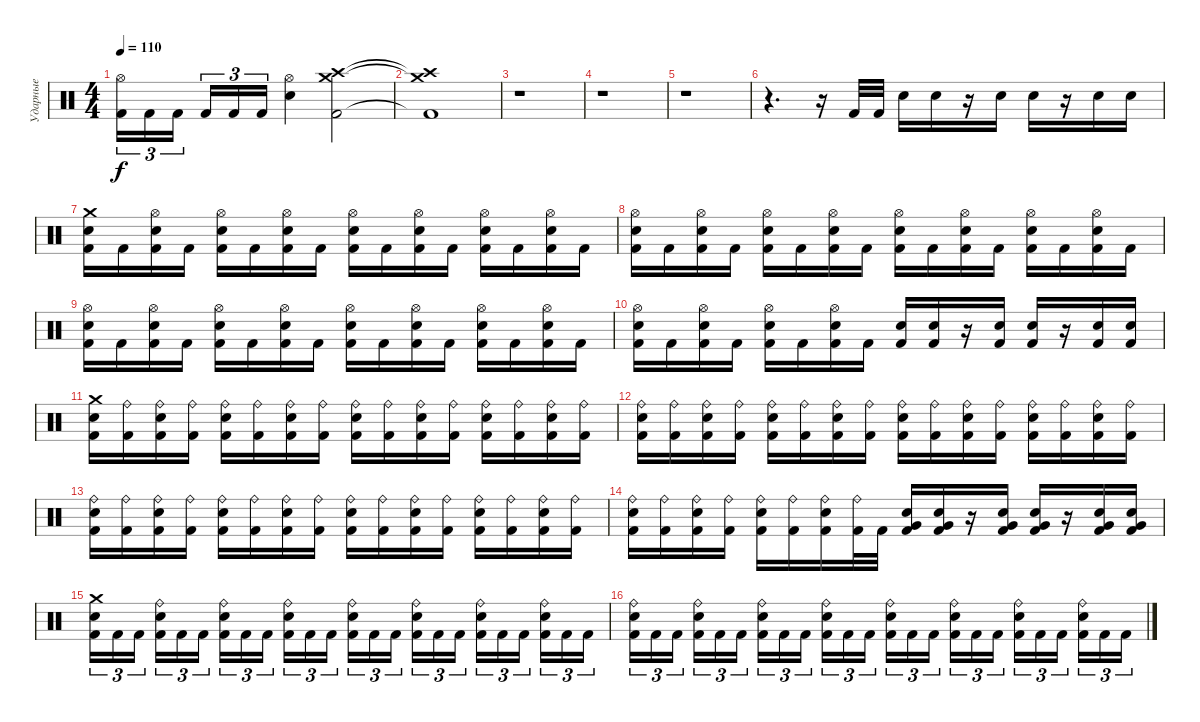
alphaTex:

\track ("Ударные" "Ударные") {instrument percussion}
\staff {score}
\articulation defaults
\ts (4 4)
\tempo 110
\clef neutral
\ks c
("Hi-Hat (open)" "Kick (hit) 2").16{tu (3 2) dy f} "Kick (hit) 2".16{tu (3 2)} "Kick (hit) 2".16{tu (3 2) beam splitsecondary} "Kick (hit) 2".16{tu (3 2)} "Kick (hit) 2".16{tu (3 2)} "Kick (hit) 2".16{tu (3 2)} ("Hi-Hat (open)" "Electric Snare (hit)").4 ("Crash medium (hit)" "Crash high (hit)" "Kick (hit) 2").2 |
("Crash medium (hit)"{t} "Crash high (hit)"{t} "Kick (hit) 2"{t}).1 |
r.1 |
r.1 |
r.1 |
r.4{d} r.16 "Kick (hit) 2".32 "Kick (hit) 2".32 "Electric Snare (hit)".16 "Electric Snare (hit)".16 r.16 "Electric Snare (hit)".16 "Electric Snare (hit)".16 r.16 "Electric Snare (hit)".16 "Electric Snare (hit)".16 |
("Crash medium (hit)" "Electric Snare (hit)" "Kick (hit) 2").16 "Kick (hit) 2".16 ("Hi-Hat (open)" "Electric Snare (hit)" "Kick (hit) 2").16 "Kick (hit) 2".16 ("Hi-Hat (open)" "Electric Snare (hit)" "Kick (hit) 2").16 "Kick (hit) 2".16 ("Hi-Hat (open)" "Electric Snare (hit)" "Kick (hit) 2").16 "Kick (hit) 2".16 ("Hi-Hat (open)" "Electric Snare (hit)" "Kick (hit) 2").16 "Kick (hit) 2".16 ("Hi-Hat (open)" "Electric Snare (hit)" "Kick (hit) 2").16 "Kick (hit) 2".16 ("Hi-Hat (open)" "Electric Snare (hit)" "Kick (hit) 2").16 "Kick (hit) 2".16 ("Hi-Hat (open)" "Electric Snare (hit)" "Kick (hit) 2").16 "Kick (hit) 2".16 |
("Hi-Hat (open)" "Electric Snare (hit)" "Kick (hit) 2").16 "Kick (hit) 2".16 ("Hi-Hat (open)" "Electric Snare (hit)" "Kick (hit) 2").16 "Kick (hit) 2".16 ("Hi-Hat (open)" "Electric Snare (hit)" "Kick (hit) 2").16 "Kick (hit) 2".16 ("Hi-Hat (open)" "Electric Snare (hit)" "Kick (hit) 2").16 "Kick (hit) 2".16 ("Hi-Hat (open)" "Electric Snare (hit)" "Kick (hit) 2").16 "Kick (hit) 2".16 ("Hi-Hat (open)" "Electric Snare (hit)" "Kick (hit) 2").16 "Kick (hit) 2".16 ("Hi-Hat (open)" "Electric Snare (hit)" "Kick (hit) 2").16 "Kick (hit) 2".16 ("Hi-Hat (open)" "Electric Snare (hit)" "Kick (hit) 2").16 "Kick (hit) 2".16 |
("Hi-Hat (open)" "Electric Snare (hit)" "Kick (hit) 2").16 "Kick (hit) 2".16 ("Hi-Hat (open)" "Electric Snare (hit)" "Kick (hit) 2").16 "Kick (hit) 2".16 ("Hi-Hat (open)" "Electric Snare (hit)" "Kick (hit) 2").16 "Kick (hit) 2".16 ("Hi-Hat (open)" "Electric Snare (hit)" "Kick (hit) 2").16 "Kick (hit) 2".16 ("Hi-Hat (open)" "Electric Snare (hit)" "Kick (hit) 2").16 "Kick (hit) 2".16 ("Hi-Hat (open)" "Electric Snare (hit)" "Kick (hit) 2").16 "Kick (hit) 2".16 ("Hi-Hat (open)" "Electric Snare (hit)" "Kick (hit) 2").16 "Kick (hit) 2".16 ("Hi-Hat (open)" "Electric Snare (hit)" "Kick (hit) 2").16 "Kick (hit) 2".16 |
("Hi-Hat (open)" "Electric Snare (hit)" "Kick (hit) 2").16 "Kick (hit) 2".16 ("Hi-Hat (open)" "Electric Snare (hit)" "Kick (hit) 2").16 "Kick (hit) 2".16 ("Hi-Hat (open)" "Electric Snare (hit)" "Kick (hit) 2").16 "Kick (hit) 2".16 ("Hi-Hat (open)" "Electric Snare (hit)" "Kick (hit) 2").16 "Kick (hit) 2".16 ("Electric Snare (hit)" "Kick (hit) 2").16 ("Electric Snare (hit)" "Kick (hit) 2").16 r.16 ("Electric Snare (hit)" "Kick (hit) 2").16 ("Electric Snare (hit)" "Kick (hit) 2").16 r.16 ("Electric Snare (hit)" "Kick (hit) 2").16 ("Electric Snare (hit)" "Kick (hit) 2").16 |
("Crash medium (hit)" "Electric Snare (hit)" "Kick (hit) 2").16 ("Ride (bell)" "Kick (hit) 2").16 ("Ride (bell)" "Electric Snare (hit)" "Kick (hit) 2").16 ("Ride (bell)" "Kick (hit) 2").16 ("Ride (bell)" "Electric Snare (hit)" "Kick (hit) 2").16 ("Ride (bell)" "Kick (hit) 2").16 ("Ride (bell)" "Electric Snare (hit)" "Kick (hit) 2").16 ("Ride (bell)" "Kick (hit) 2").16 ("Ride (bell)" "Electric Snare (hit)" "Kick (hit) 2").16 ("Ride (bell)" "Kick (hit) 2").16 ("Ride (bell)" "Electric Snare (hit)" "Kick (hit) 2").16 ("Ride (bell)" "Kick (hit) 2").16 ("Ride (bell)" "Electric Snare (hit)" "Kick (hit) 2").16 ("Ride (bell)" "Kick (hit) 2").16 ("Ride (bell)" "Electric Snare (hit)" "Kick (hit) 2").16 ("Ride (bell)" "Kick (hit) 2").16 |
("Ride (bell)" "Electric Snare (hit)" "Kick (hit) 2").16 ("Ride (bell)" "Kick (hit) 2").16 ("Ride (bell)" "Electric Snare (hit)" "Kick (hit) 2").16 ("Ride (bell)" "Kick (hit) 2").16 ("Ride (bell)" "Electric Snare (hit)" "Kick (hit) 2").16 ("Ride (bell)" "Kick (hit) 2").16 ("Ride (bell)" "Electric Snare (hit)" "Kick (hit) 2").16 ("Ride (bell)" "Kick (hit) 2").16 ("Ride (bell)" "Electric Snare (hit)" "Kick (hit) 2").16 ("Ride (bell)" "Kick (hit) 2").16 ("Ride (bell)" "Electric Snare (hit)" "Kick (hit) 2").16 ("Ride (bell)" "Kick (hit) 2").16 ("Ride (bell)" "Electric Snare (hit)" "Kick (hit) 2").16 ("Ride (bell)" "Kick (hit) 2").16 ("Ride (bell)" "Electric Snare (hit)" "Kick (hit) 2").16 ("Ride (bell)" "Kick (hit) 2").16 |
("Ride (bell)" "Electric Snare (hit)" "Kick (hit) 2").16 ("Ride (bell)" "Kick (hit) 2").16 ("Ride (bell)" "Electric Snare (hit)" "Kick (hit) 2").16 ("Ride (bell)" "Kick (hit) 2").16 ("Ride (bell)" "Electric Snare (hit)" "Kick (hit) 2").16 ("Ride (bell)" "Kick (hit) 2").16 ("Ride (bell)" "Electric Snare (hit)" "Kick (hit) 2").16 ("Ride (bell)" "Kick (hit) 2").16 ("Ride (bell)" "Electric Snare (hit)" "Kick (hit) 2").16 ("Ride (bell)" "Kick (hit) 2").16 ("Ride (bell)" "Electric Snare (hit)" "Kick (hit) 2").16 ("Ride (bell)" "Kick (hit) 2").16 ("Ride (bell)" "Electric Snare (hit)" "Kick (hit) 2").16 ("Ride (bell)" "Kick (hit) 2").16 ("Ride (bell)" "Electric Snare (hit)" "Kick (hit) 2").16 ("Ride (bell)" "Kick (hit) 2").16 |
("Ride (bell)" "Electric Snare (hit)" "Kick (hit) 2").16 ("Ride (bell)" "Kick (hit) 2").16 ("Ride (bell)" "Electric Snare (hit)" "Kick (hit) 2").16 ("Ride (bell)" "Kick (hit) 2").16 ("Ride (bell)" "Electric Snare (hit)" "Kick (hit) 2").16 ("Ride (bell)" "Kick (hit) 2").16 ("Ride (bell)" "Electric Snare (hit)" "Kick (hit) 2").16 ("Ride (bell)" "Kick (hit) 2").32 "Kick (hit) 2".32 ("Electric Snare (hit)" "Very Low Tom (hit)" "Kick (hit) 2").16 ("Electric Snare (hit)" "Very Low Tom (hit)" "Kick (hit) 2").16 r.16 ("Electric Snare (hit)" "Very Low Tom (hit)" "Kick (hit) 2").16 ("Electric Snare (hit)" "Very Low Tom (hit)" "Kick (hit) 2").16 r.16 ("Electric Snare (hit)" "Very Low Tom (hit)" "Kick (hit) 2").16 ("Electric Snare (hit)" "Very Low Tom (hit)" "Kick (hit) 2").16 |
("Crash medium (hit)" "Electric Snare (hit)" "Kick (hit) 2").16{tu (3 2)} "Kick (hit) 2".16{tu (3 2)} "Kick (hit) 2".16{tu (3 2) beam splitsecondary} ("Ride (bell)" "Electric Snare (hit)" "Kick (hit) 2").16{tu (3 2)} "Kick (hit) 2".16{tu (3 2)} "Kick (hit) 2".16{tu (3 2)} ("Ride (bell)" "Electric Snare (hit)" "Kick (hit) 2").16{tu (3 2)} "Kick (hit) 2".16{tu (3 2)} "Kick (hit) 2".16{tu (3 2) beam splitsecondary} ("Ride (bell)" "Electric Snare (hit)" "Kick (hit) 2").16{tu (3 2)} "Kick (hit) 2".16{tu (3 2)} "Kick (hit) 2".16{tu (3 2)} ("Ride (bell)" "Electric Snare (hit)" "Kick (hit) 2").16{tu (3 2)} "Kick (hit) 2".16{tu (3 2)} "Kick (hit) 2".16{tu (3 2) beam splitsecondary} ("Ride (bell)" "Electric Snare (hit)" "Kick (hit) 2").16{tu (3 2)} "Kick (hit) 2".16{tu (3 2)} "Kick (hit) 2".16{tu (3 2)} ("Ride (bell)" "Electric Snare (hit)" "Kick (hit) 2").16{tu (3 2)} "Kick (hit) 2".16{tu (3 2)} "Kick (hit) 2".16{tu (3 2) beam splitsecondary} ("Ride (bell)" "Electric Snare (hit)" "Kick (hit) 2").16{tu (3 2)} "Kick (hit) 2".16{tu (3 2)} "Kick (hit) 2".16{tu (3 2)} |
("Ride (bell)" "Electric Snare (hit)" "Kick (hit) 2").16{tu (3 2)} "Kick (hit) 2".16{tu (3 2)} "Kick (hit) 2".16{tu (3 2) beam splitsecondary} ("Ride (bell)" "Electric Snare (hit)" "Kick (hit) 2").16{tu (3 2)} "Kick (hit) 2".16{tu (3 2)} "Kick (hit) 2".16{tu (3 2)} ("Ride (bell)" "Electric Snare (hit)" "Kick (hit) 2").16{tu (3 2)} "Kick (hit) 2".16{tu (3 2)} "Kick (hit) 2".16{tu (3 2) beam splitsecondary} ("Ride (bell)" "Electric Snare (hit)" "Kick (hit) 2").16{tu (3 2)} "Kick (hit) 2".16{tu (3 2)} "Kick (hit) 2".16{tu (3 2)} ("Ride (bell)" "Electric Snare (hit)" "Kick (hit) 2").16{tu (3 2)} "Kick (hit) 2".16{tu (3 2)} "Kick (hit) 2".16{tu (3 2) beam splitsecondary} ("Ride (bell)" "Electric Snare (hit)" "Kick (hit) 2").16{tu (3 2)} "Kick (hit) 2".16{tu (3 2)} "Kick (hit) 2".16{tu (3 2)} ("Ride (bell)" "Electric Snare (hit)" "Kick (hit) 2").16{tu (3 2)} "Kick (hit) 2".16{tu (3 2)} "Kick (hit) 2".16{tu (3 2) beam splitsecondary} ("Ride (bell)" "Electric Snare (hit)" "Kick (hit) 2").16{tu (3 2)} "Kick (hit) 2".16{tu (3 2)} "Kick (hit) 2".16{tu (3 2)}
